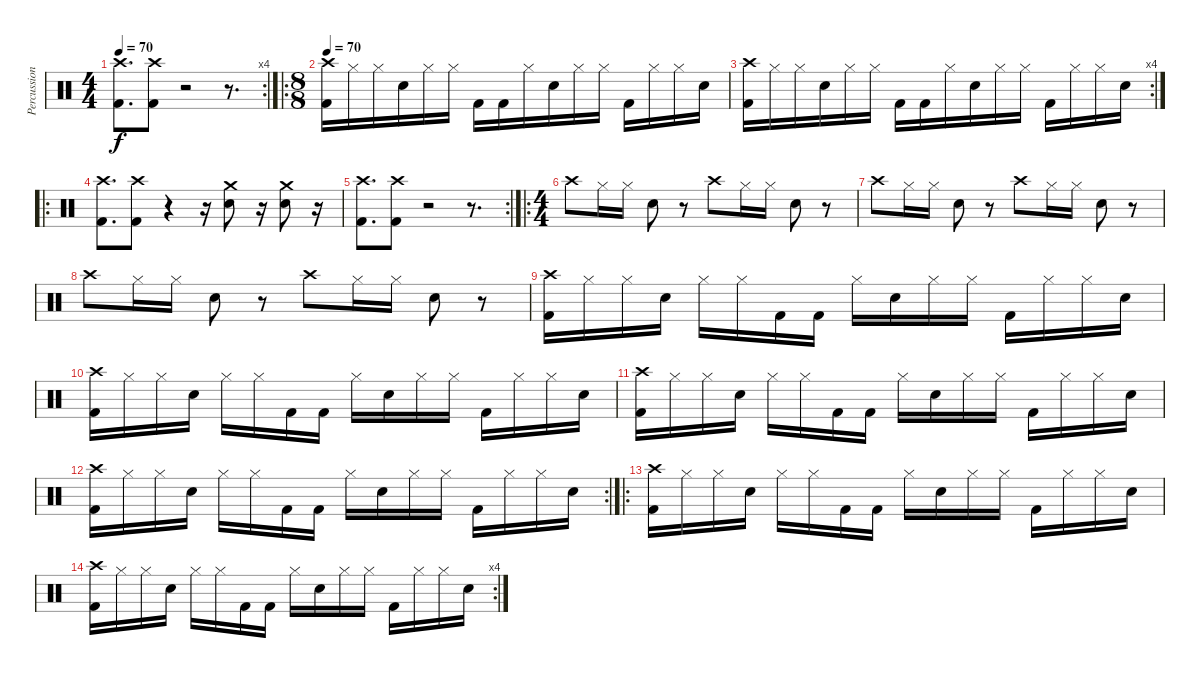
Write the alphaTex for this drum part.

\track ("Percussion" "Percussion") {instrument percussion}
\staff {score}
\articulation defaults
\rc 4
\ts (4 4)
\tempo 70
\clef neutral
\ks c
("Kick (hit) 2" "Crash high (hit)").8{d dy f} ("Kick (hit) 2" "Crash high (hit)").8 r.2 r.8{d} |
\ro
\ts (8 8)
\tempo 70
("Kick (hit) 2" "Crash high (hit)").16 "Hi-Hat (closed)".16 "Hi-Hat (closed)".16 "Snare (hit) 2".16 "Hi-Hat (closed)".16 "Hi-Hat (closed)".16 "Kick (hit) 2".16 "Kick (hit) 2".16 "Hi-Hat (closed)".16 "Snare (hit) 2".16 "Hi-Hat (closed)".16 "Hi-Hat (closed)".16 "Kick (hit) 2".16 "Hi-Hat (closed)".16 "Hi-Hat (closed)".16 "Snare (hit) 2".16 |
\rc 4
("Kick (hit) 2" "Crash high (hit)").16 "Hi-Hat (closed)".16 "Hi-Hat (closed)".16 "Snare (hit) 2".16 "Hi-Hat (closed)".16 "Hi-Hat (closed)".16 "Kick (hit) 2".16 "Kick (hit) 2".16 "Hi-Hat (closed)".16 "Snare (hit) 2".16 "Hi-Hat (closed)".16 "Hi-Hat (closed)".16 "Kick (hit) 2".16 "Hi-Hat (closed)".16 "Hi-Hat (closed)".16 "Snare (hit) 2".16 |
\ro
("Kick (hit) 2" "Crash high (hit)").8{d} ("Kick (hit) 2" "Crash high (hit)").8 r.4 r.16 ("Snare (hit) 2" "Crash medium (hit)").8 r.16 ("Snare (hit) 2" "Crash medium (hit)").8 r.16 |
\rc 2
("Kick (hit) 2" "Crash high (hit)").8{d} ("Kick (hit) 2" "Crash high (hit)").8 r.2 r.8{d} |
\ro
\ts (4 4)
"Crash high (hit)".8 "Hi-Hat (closed)".16 "Hi-Hat (closed)".16 "Snare (hit) 2".8 r.8 "Crash high (hit)".8 "Hi-Hat (closed)".16 "Hi-Hat (closed)".16 "Snare (hit) 2".8 r.8 |
"Crash high (hit)".8 "Hi-Hat (closed)".16 "Hi-Hat (closed)".16 "Snare (hit) 2".8 r.8 "Crash high (hit)".8 "Hi-Hat (closed)".16 "Hi-Hat (closed)".16 "Snare (hit) 2".8 r.8 |
"Crash high (hit)".8 "Hi-Hat (closed)".16 "Hi-Hat (closed)".16 "Snare (hit) 2".8 r.8 "Crash high (hit)".8 "Hi-Hat (closed)".16 "Hi-Hat (closed)".16 "Snare (hit) 2".8 r.8 |
("Kick (hit) 2" "Crash high (hit)").16 "Hi-Hat (closed)".16 "Hi-Hat (closed)".16 "Snare (hit) 2".16 "Hi-Hat (closed)".16 "Hi-Hat (closed)".16 "Kick (hit) 2".16 "Kick (hit) 2".16 "Hi-Hat (closed)".16 "Snare (hit) 2".16 "Hi-Hat (closed)".16 "Hi-Hat (closed)".16 "Kick (hit) 2".16 "Hi-Hat (closed)".16 "Hi-Hat (closed)".16 "Snare (hit) 2".16 |
("Kick (hit) 2" "Crash high (hit)").16 "Hi-Hat (closed)".16 "Hi-Hat (closed)".16 "Snare (hit) 2".16 "Hi-Hat (closed)".16 "Hi-Hat (closed)".16 "Kick (hit) 2".16 "Kick (hit) 2".16 "Hi-Hat (closed)".16 "Snare (hit) 2".16 "Hi-Hat (closed)".16 "Hi-Hat (closed)".16 "Kick (hit) 2".16 "Hi-Hat (closed)".16 "Hi-Hat (closed)".16 "Snare (hit) 2".16 |
("Kick (hit) 2" "Crash high (hit)").16 "Hi-Hat (closed)".16 "Hi-Hat (closed)".16 "Snare (hit) 2".16 "Hi-Hat (closed)".16 "Hi-Hat (closed)".16 "Kick (hit) 2".16 "Kick (hit) 2".16 "Hi-Hat (closed)".16 "Snare (hit) 2".16 "Hi-Hat (closed)".16 "Hi-Hat (closed)".16 "Kick (hit) 2".16 "Hi-Hat (closed)".16 "Hi-Hat (closed)".16 "Snare (hit) 2".16 |
\rc 2
("Kick (hit) 2" "Crash high (hit)").16 "Hi-Hat (closed)".16 "Hi-Hat (closed)".16 "Snare (hit) 2".16 "Hi-Hat (closed)".16 "Hi-Hat (closed)".16 "Kick (hit) 2".16 "Kick (hit) 2".16 "Hi-Hat (closed)".16 "Snare (hit) 2".16 "Hi-Hat (closed)".16 "Hi-Hat (closed)".16 "Kick (hit) 2".16 "Hi-Hat (closed)".16 "Hi-Hat (closed)".16 "Snare (hit) 2".16 |
\ro
("Kick (hit) 2" "Crash high (hit)").16 "Hi-Hat (closed)".16 "Hi-Hat (closed)".16 "Snare (hit) 2".16 "Hi-Hat (closed)".16 "Hi-Hat (closed)".16 "Kick (hit) 2".16 "Kick (hit) 2".16 "Hi-Hat (closed)".16 "Snare (hit) 2".16 "Hi-Hat (closed)".16 "Hi-Hat (closed)".16 "Kick (hit) 2".16 "Hi-Hat (closed)".16 "Hi-Hat (closed)".16 "Snare (hit) 2".16 |
\rc 4
("Kick (hit) 2" "Crash high (hit)").16 "Hi-Hat (closed)".16 "Hi-Hat (closed)".16 "Snare (hit) 2".16 "Hi-Hat (closed)".16 "Hi-Hat (closed)".16 "Kick (hit) 2".16 "Kick (hit) 2".16 "Hi-Hat (closed)".16 "Snare (hit) 2".16 "Hi-Hat (closed)".16 "Hi-Hat (closed)".16 "Kick (hit) 2".16 "Hi-Hat (closed)".16 "Hi-Hat (closed)".16 "Snare (hit) 2".16
